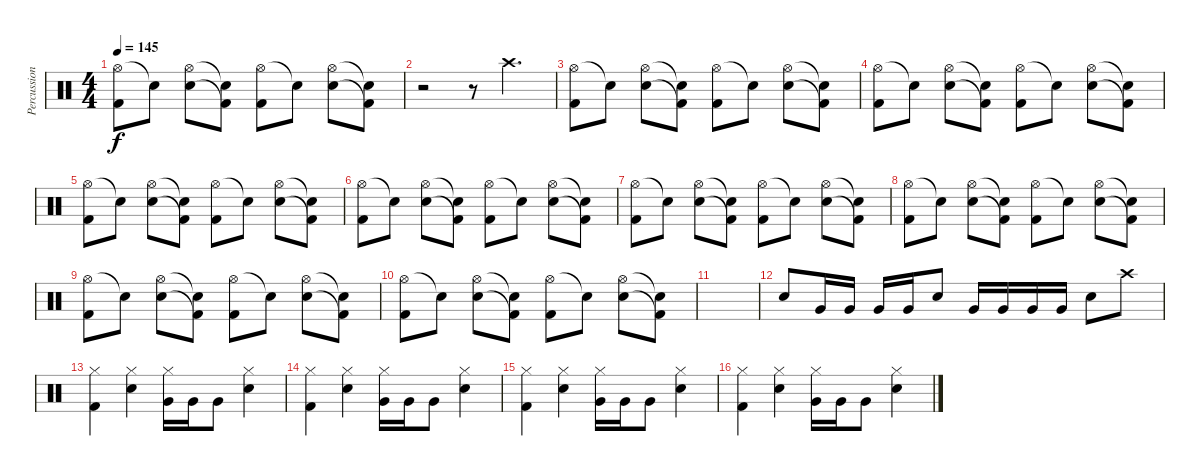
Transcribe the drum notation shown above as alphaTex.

\track ("Percussion" "Percussion") {instrument percussion}
\staff {score}
\articulation defaults
\ts (4 4)
\tempo 145
\clef neutral
\ks c
("Hi-Hat (open)" "Kick (hit) 2").8{dy f} "Snare (hit)"{t}.8 ("Hi-Hat (open)" "Electric Snare (hit)").8 ("Snare (hit)"{t} "Kick (hit) 2"{t}).8 ("Hi-Hat (open)" "Kick (hit) 2").8 "Snare (hit)"{t}.8 ("Hi-Hat (open)" "Electric Snare (hit)").8 ("Snare (hit)"{t} "Kick (hit) 2"{t}).8 |
r.2 r.8 "Crash high (hit)".4{d} |
("Hi-Hat (open)" "Kick (hit) 2").8 "Snare (hit)"{t}.8 ("Hi-Hat (open)" "Electric Snare (hit)").8 ("Snare (hit)"{t} "Kick (hit) 2"{t}).8 ("Hi-Hat (open)" "Kick (hit) 2").8 "Snare (hit)"{t}.8 ("Hi-Hat (open)" "Electric Snare (hit)").8 ("Snare (hit)"{t} "Kick (hit) 2"{t}).8 |
("Hi-Hat (open)" "Kick (hit) 2").8 "Snare (hit)"{t}.8 ("Hi-Hat (open)" "Electric Snare (hit)").8 ("Snare (hit)"{t} "Kick (hit) 2"{t}).8 ("Hi-Hat (open)" "Kick (hit) 2").8 "Snare (hit)"{t}.8 ("Hi-Hat (open)" "Electric Snare (hit)").8 ("Snare (hit)"{t} "Kick (hit) 2"{t}).8 |
("Hi-Hat (open)" "Kick (hit) 2").8 "Snare (hit)"{t}.8 ("Hi-Hat (open)" "Electric Snare (hit)").8 ("Snare (hit)"{t} "Kick (hit) 2"{t}).8 ("Hi-Hat (open)" "Kick (hit) 2").8 "Snare (hit)"{t}.8 ("Hi-Hat (open)" "Electric Snare (hit)").8 ("Snare (hit)"{t} "Kick (hit) 2"{t}).8 |
("Hi-Hat (open)" "Kick (hit) 2").8 "Snare (hit)"{t}.8 ("Hi-Hat (open)" "Electric Snare (hit)").8 ("Snare (hit)"{t} "Kick (hit) 2"{t}).8 ("Hi-Hat (open)" "Kick (hit) 2").8 "Snare (hit)"{t}.8 ("Hi-Hat (open)" "Electric Snare (hit)").8 ("Snare (hit)"{t} "Kick (hit) 2"{t}).8 |
("Hi-Hat (open)" "Kick (hit) 2").8 "Snare (hit)"{t}.8 ("Hi-Hat (open)" "Electric Snare (hit)").8 ("Snare (hit)"{t} "Kick (hit) 2"{t}).8 ("Hi-Hat (open)" "Kick (hit) 2").8 "Snare (hit)"{t}.8 ("Hi-Hat (open)" "Electric Snare (hit)").8 ("Snare (hit)"{t} "Kick (hit) 2"{t}).8 |
("Hi-Hat (open)" "Kick (hit) 2").8 "Snare (hit)"{t}.8 ("Hi-Hat (open)" "Electric Snare (hit)").8 ("Snare (hit)"{t} "Kick (hit) 2"{t}).8 ("Hi-Hat (open)" "Kick (hit) 2").8 "Snare (hit)"{t}.8 ("Hi-Hat (open)" "Electric Snare (hit)").8 ("Snare (hit)"{t} "Kick (hit) 2"{t}).8 |
("Hi-Hat (open)" "Kick (hit) 2").8 "Snare (hit)"{t}.8 ("Hi-Hat (open)" "Electric Snare (hit)").8 ("Snare (hit)"{t} "Kick (hit) 2"{t}).8 ("Hi-Hat (open)" "Kick (hit) 2").8 "Snare (hit)"{t}.8 ("Hi-Hat (open)" "Electric Snare (hit)").8 ("Snare (hit)"{t} "Kick (hit) 2"{t}).8 |
("Hi-Hat (open)" "Kick (hit) 2").8 "Snare (hit)"{t}.8 ("Hi-Hat (open)" "Electric Snare (hit)").8 ("Snare (hit)"{t} "Kick (hit) 2"{t}).8 ("Hi-Hat (open)" "Kick (hit) 2").8 "Snare (hit)"{t}.8 ("Hi-Hat (open)" "Electric Snare (hit)").8 ("Snare (hit)"{t} "Kick (hit) 2"{t}).8 |
|
"Electric Snare (hit)".8 "Very Low Tom (hit)".16 "Very Low Tom (hit)".16 "Very Low Tom (hit)".16 "Very Low Tom (hit)".16 "Electric Snare (hit)".8 "Very Low Tom (hit)".16 "Very Low Tom (hit)".16 "Very Low Tom (hit)".16 "Very Low Tom (hit)".16 "Electric Snare (hit)".8 "Crash high (hit)".8 |
("Hi-Hat (closed)" "Kick (hit) 2").4 ("Hi-Hat (closed)" "Electric Snare (hit)").4 ("Hi-Hat (closed)" "Very Low Tom (hit)").16 "Very Low Tom (hit)".16 "Very Low Tom (hit)".8 ("Hi-Hat (closed)" "Electric Snare (hit)").4 |
("Hi-Hat (closed)" "Kick (hit) 2").4 ("Hi-Hat (closed)" "Electric Snare (hit)").4 ("Hi-Hat (closed)" "Very Low Tom (hit)").16 "Very Low Tom (hit)".16 "Very Low Tom (hit)".8 ("Hi-Hat (closed)" "Electric Snare (hit)").4 |
("Hi-Hat (closed)" "Kick (hit) 2").4 ("Hi-Hat (closed)" "Electric Snare (hit)").4 ("Hi-Hat (closed)" "Very Low Tom (hit)").16 "Very Low Tom (hit)".16 "Very Low Tom (hit)".8 ("Hi-Hat (closed)" "Electric Snare (hit)").4 |
("Hi-Hat (closed)" "Kick (hit) 2").4 ("Hi-Hat (closed)" "Electric Snare (hit)").4 ("Hi-Hat (closed)" "Very Low Tom (hit)").16 "Very Low Tom (hit)".16 "Very Low Tom (hit)".8 ("Hi-Hat (closed)" "Electric Snare (hit)").4
